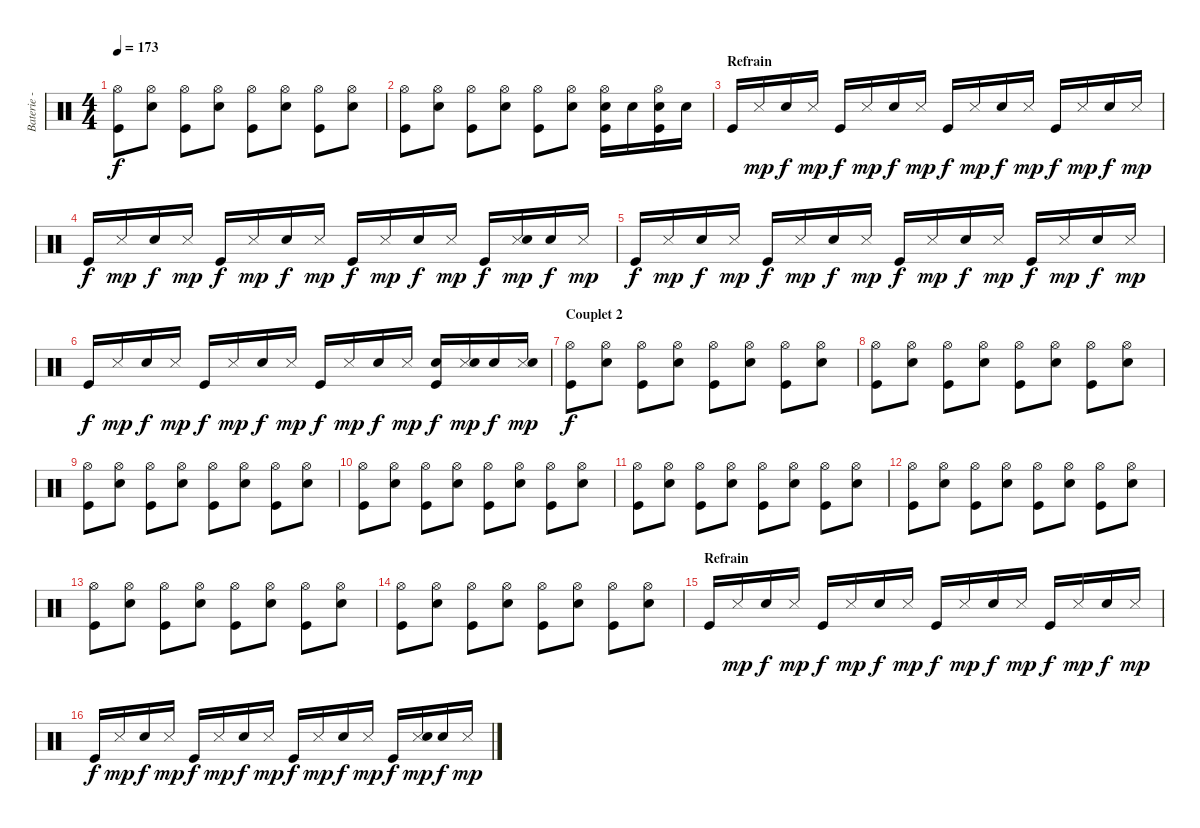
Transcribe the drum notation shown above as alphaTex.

\track ("Baterie - Guillaume" "Baterie - ") {instrument percussion}
\staff {score}
\articulation defaults
\ts (4 4)
\tempo 173
\clef neutral
\ks c
("Hi-Hat (open)" "Kick (hit)").8{dy f} ("Hi-Hat (open)" "Snare (hit) 2").8 ("Hi-Hat (open)" "Kick (hit)").8 ("Hi-Hat (open)" "Snare (hit) 2").8 ("Hi-Hat (open)" "Kick (hit)").8 ("Hi-Hat (open)" "Snare (hit) 2").8 ("Hi-Hat (open)" "Kick (hit)").8 ("Hi-Hat (open)" "Snare (hit) 2").8 |
("Hi-Hat (open)" "Kick (hit)").8 ("Hi-Hat (open)" "Snare (hit) 2").8 ("Hi-Hat (open)" "Kick (hit)").8 ("Hi-Hat (open)" "Snare (hit) 2").8 ("Hi-Hat (open)" "Kick (hit)").8 ("Hi-Hat (open)" "Snare (hit) 2").8 ("Hi-Hat (open)" "Snare (hit) 2" "Kick (hit)").16 "Snare (hit) 2".16 ("Hi-Hat (open)" "Snare (hit) 2" "Kick (hit)").16 "Snare (hit) 2".16 |
\section ("" "Refrain")
"Kick (hit)".16 "Snare (side stick) 3".16{dy mp} "Snare (hit) 2".16{dy f} "Snare (side stick) 3".16{dy mp} "Kick (hit)".16{dy f} "Snare (side stick) 3".16{dy mp} "Snare (hit) 2".16{dy f} "Snare (side stick) 3".16{dy mp} "Kick (hit)".16{dy f} "Snare (side stick) 3".16{dy mp} "Snare (hit) 2".16{dy f} "Snare (side stick) 3".16{dy mp} "Kick (hit)".16{dy f} "Snare (side stick) 3".16{dy mp} "Snare (hit) 2".16{dy f} "Snare (side stick) 3".16{dy mp} |
"Kick (hit)".16{dy f} "Snare (side stick) 3".16{dy mp} "Snare (hit) 2".16{dy f} "Snare (side stick) 3".16{dy mp} "Kick (hit)".16{dy f} "Snare (side stick) 3".16{dy mp} "Snare (hit) 2".16{dy f} "Snare (side stick) 3".16{dy mp} "Kick (hit)".16{dy f} "Snare (side stick) 3".16{dy mp} "Snare (hit) 2".16{dy f} "Snare (side stick) 3".16{dy mp} "Kick (hit)".16{dy f} ("Snare (side stick) 3" "Snare (hit) 2").16{dy mp} "Snare (hit) 2".16{dy f} "Snare (side stick) 3".16{dy mp} |
"Kick (hit)".16{dy f} "Snare (side stick) 3".16{dy mp} "Snare (hit) 2".16{dy f} "Snare (side stick) 3".16{dy mp} "Kick (hit)".16{dy f} "Snare (side stick) 3".16{dy mp} "Snare (hit) 2".16{dy f} "Snare (side stick) 3".16{dy mp} "Kick (hit)".16{dy f} "Snare (side stick) 3".16{dy mp} "Snare (hit) 2".16{dy f} "Snare (side stick) 3".16{dy mp} "Kick (hit)".16{dy f} "Snare (side stick) 3".16{dy mp} "Snare (hit) 2".16{dy f} "Snare (side stick) 3".16{dy mp} |
"Kick (hit)".16{dy f} "Snare (side stick) 3".16{dy mp} "Snare (hit) 2".16{dy f} "Snare (side stick) 3".16{dy mp} "Kick (hit)".16{dy f} "Snare (side stick) 3".16{dy mp} "Snare (hit) 2".16{dy f} "Snare (side stick) 3".16{dy mp} "Kick (hit)".16{dy f} "Snare (side stick) 3".16{dy mp} "Snare (hit) 2".16{dy f} "Snare (side stick) 3".16{dy mp} ("Snare (hit) 2" "Kick (hit)").16{dy f} ("Snare (side stick) 3" "Snare (hit) 2").16{dy mp} "Snare (hit) 2".16{dy f} ("Snare (side stick) 3" "Snare (hit) 2").16{dy mp} |
\section ("" "Couplet 2")
("Hi-Hat (open)" "Kick (hit)").8{dy f} ("Hi-Hat (open)" "Snare (hit) 2").8 ("Hi-Hat (open)" "Kick (hit)").8 ("Hi-Hat (open)" "Snare (hit) 2").8 ("Hi-Hat (open)" "Kick (hit)").8 ("Hi-Hat (open)" "Snare (hit) 2").8 ("Hi-Hat (open)" "Kick (hit)").8 ("Hi-Hat (open)" "Snare (hit) 2").8 |
("Hi-Hat (open)" "Kick (hit)").8 ("Hi-Hat (open)" "Snare (hit) 2").8 ("Hi-Hat (open)" "Kick (hit)").8 ("Hi-Hat (open)" "Snare (hit) 2").8 ("Hi-Hat (open)" "Kick (hit)").8 ("Hi-Hat (open)" "Snare (hit) 2").8 ("Hi-Hat (open)" "Kick (hit)").8 ("Hi-Hat (open)" "Snare (hit) 2").8 |
("Hi-Hat (open)" "Kick (hit)").8 ("Hi-Hat (open)" "Snare (hit) 2").8 ("Hi-Hat (open)" "Kick (hit)").8 ("Hi-Hat (open)" "Snare (hit) 2").8 ("Hi-Hat (open)" "Kick (hit)").8 ("Hi-Hat (open)" "Snare (hit) 2").8 ("Hi-Hat (open)" "Kick (hit)").8 ("Hi-Hat (open)" "Snare (hit) 2").8 |
("Hi-Hat (open)" "Kick (hit)").8 ("Hi-Hat (open)" "Snare (hit) 2").8 ("Hi-Hat (open)" "Kick (hit)").8 ("Hi-Hat (open)" "Snare (hit) 2").8 ("Hi-Hat (open)" "Kick (hit)").8 ("Hi-Hat (open)" "Snare (hit) 2").8 ("Hi-Hat (open)" "Kick (hit)").8 ("Hi-Hat (open)" "Snare (hit) 2").8 |
("Hi-Hat (open)" "Kick (hit)").8 ("Hi-Hat (open)" "Snare (hit) 2").8 ("Hi-Hat (open)" "Kick (hit)").8 ("Hi-Hat (open)" "Snare (hit) 2").8 ("Hi-Hat (open)" "Kick (hit)").8 ("Hi-Hat (open)" "Snare (hit) 2").8 ("Hi-Hat (open)" "Kick (hit)").8 ("Hi-Hat (open)" "Snare (hit) 2").8 |
("Hi-Hat (open)" "Kick (hit)").8 ("Hi-Hat (open)" "Snare (hit) 2").8 ("Hi-Hat (open)" "Kick (hit)").8 ("Hi-Hat (open)" "Snare (hit) 2").8 ("Hi-Hat (open)" "Kick (hit)").8 ("Hi-Hat (open)" "Snare (hit) 2").8 ("Hi-Hat (open)" "Kick (hit)").8 ("Hi-Hat (open)" "Snare (hit) 2").8 |
("Hi-Hat (open)" "Kick (hit)").8 ("Hi-Hat (open)" "Snare (hit) 2").8 ("Hi-Hat (open)" "Kick (hit)").8 ("Hi-Hat (open)" "Snare (hit) 2").8 ("Hi-Hat (open)" "Kick (hit)").8 ("Hi-Hat (open)" "Snare (hit) 2").8 ("Hi-Hat (open)" "Kick (hit)").8 ("Hi-Hat (open)" "Snare (hit) 2").8 |
("Hi-Hat (open)" "Kick (hit)").8 ("Hi-Hat (open)" "Snare (hit) 2").8 ("Hi-Hat (open)" "Kick (hit)").8 ("Hi-Hat (open)" "Snare (hit) 2").8 ("Hi-Hat (open)" "Kick (hit)").8 ("Hi-Hat (open)" "Snare (hit) 2").8 ("Hi-Hat (open)" "Kick (hit)").8 ("Hi-Hat (open)" "Snare (hit) 2").8 |
\section ("" "Refrain")
"Kick (hit)".16 "Snare (side stick) 3".16{dy mp} "Snare (hit) 2".16{dy f} "Snare (side stick) 3".16{dy mp} "Kick (hit)".16{dy f} "Snare (side stick) 3".16{dy mp} "Snare (hit) 2".16{dy f} "Snare (side stick) 3".16{dy mp} "Kick (hit)".16{dy f} "Snare (side stick) 3".16{dy mp} "Snare (hit) 2".16{dy f} "Snare (side stick) 3".16{dy mp} "Kick (hit)".16{dy f} "Snare (side stick) 3".16{dy mp} "Snare (hit) 2".16{dy f} "Snare (side stick) 3".16{dy mp} |
"Kick (hit)".16{dy f} "Snare (side stick) 3".16{dy mp} "Snare (hit) 2".16{dy f} "Snare (side stick) 3".16{dy mp} "Kick (hit)".16{dy f} "Snare (side stick) 3".16{dy mp} "Snare (hit) 2".16{dy f} "Snare (side stick) 3".16{dy mp} "Kick (hit)".16{dy f} "Snare (side stick) 3".16{dy mp} "Snare (hit) 2".16{dy f} "Snare (side stick) 3".16{dy mp} "Kick (hit)".16{dy f} ("Snare (side stick) 3" "Snare (hit) 2").16{dy mp} "Snare (hit) 2".16{dy f} "Snare (side stick) 3".16{dy mp}
